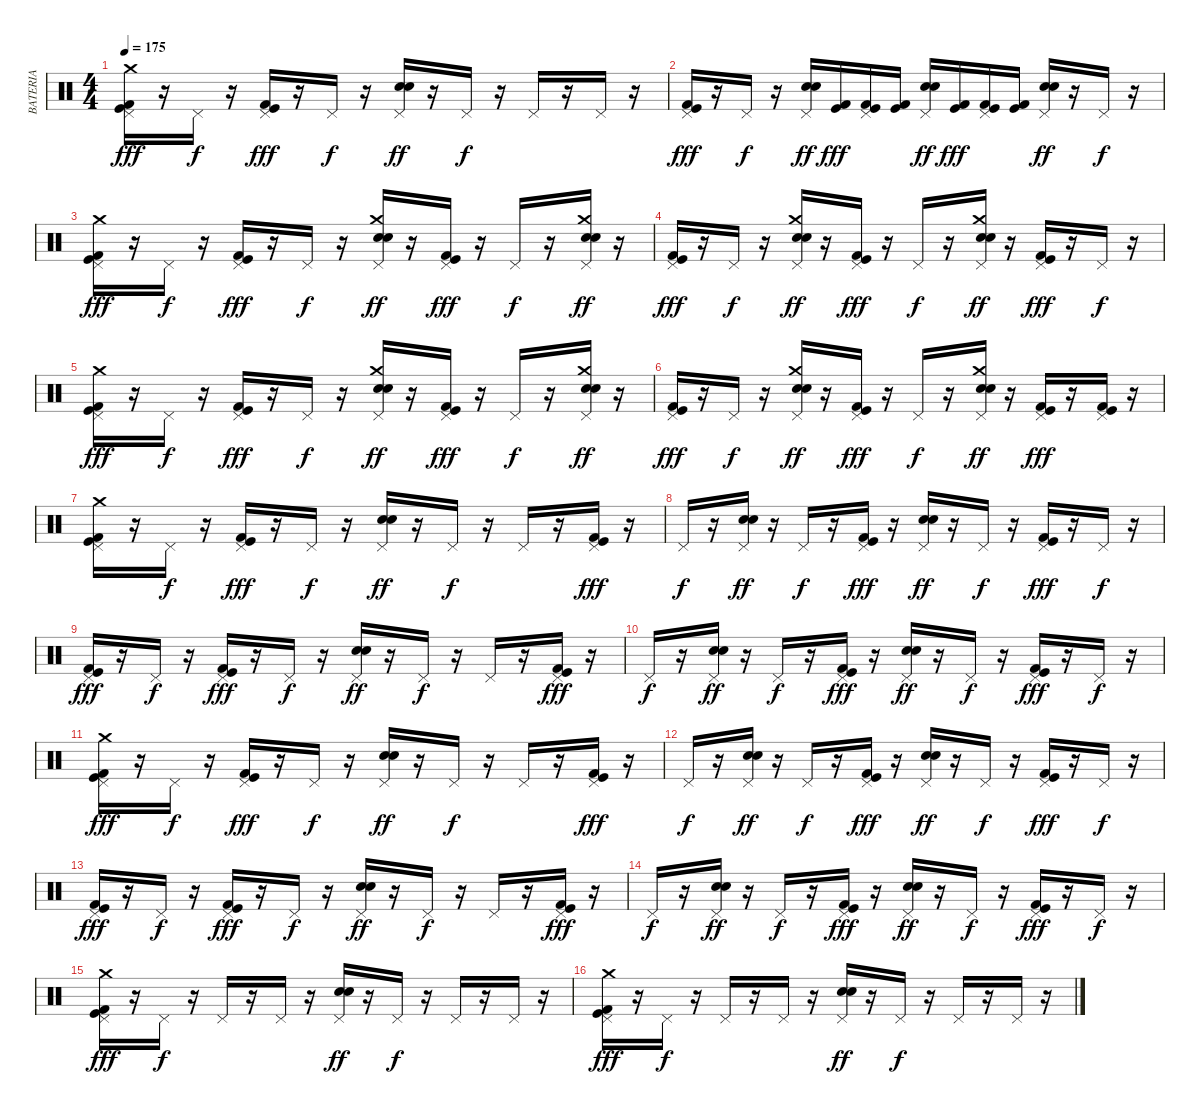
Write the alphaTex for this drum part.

\track ("BATERIA" "BATERIA") {instrument percussion}
\staff {score}
\articulation defaults
\ts (4 4)
\tempo 175
\clef neutral
\ks c
("Pedal Hi-Hat (hit)" "Kick (hit)" "Kick (hit) 2" "Crash medium (hit)").16{dy fff} r.16 "Pedal Hi-Hat (hit)".16{dy f} r.16 ("Kick (hit) 2" "Kick (hit)" "Pedal Hi-Hat (hit)").16{dy fff} r.16 "Pedal Hi-Hat (hit)".16{dy f} r.16 ("Electric Snare (hit)" "Snare (hit) 2" "Pedal Hi-Hat (hit)").16{dy ff} r.16 "Pedal Hi-Hat (hit)".16{dy f} r.16 "Pedal Hi-Hat (hit)".16 r.16 "Pedal Hi-Hat (hit)".16 r.16 |
("Kick (hit) 2" "Kick (hit)" "Pedal Hi-Hat (hit)").16{dy fff} r.16 "Pedal Hi-Hat (hit)".16{dy f} r.16 ("Electric Snare (hit)" "Snare (hit) 2" "Pedal Hi-Hat (hit)").16{dy ff} ("Kick (hit)" "Kick (hit) 2").16{dy fff} ("Kick (hit) 2" "Kick (hit)" "Pedal Hi-Hat (hit)").16 ("Kick (hit)" "Kick (hit) 2").16 ("Electric Snare (hit)" "Snare (hit) 2" "Pedal Hi-Hat (hit)").16{dy ff} ("Kick (hit)" "Kick (hit) 2").16{dy fff} ("Kick (hit) 2" "Kick (hit)" "Pedal Hi-Hat (hit)").16 ("Kick (hit)" "Kick (hit) 2").16 ("Electric Snare (hit)" "Snare (hit) 2" "Pedal Hi-Hat (hit)").16{dy ff} r.16 "Pedal Hi-Hat (hit)".16{dy f} r.16 |
("Pedal Hi-Hat (hit)" "Kick (hit)" "Kick (hit) 2" "Crash medium (hit)").16{dy fff} r.16 "Pedal Hi-Hat (hit)".16{dy f} r.16 ("Kick (hit) 2" "Kick (hit)" "Pedal Hi-Hat (hit)").16{dy fff} r.16 "Pedal Hi-Hat (hit)".16{dy f} r.16 ("Crash medium (hit)" "Electric Snare (hit)" "Snare (hit) 2" "Pedal Hi-Hat (hit)").16{dy ff} r.16 ("Kick (hit) 2" "Kick (hit)" "Pedal Hi-Hat (hit)").16{dy fff} r.16 "Pedal Hi-Hat (hit)".16{dy f} r.16 ("Crash medium (hit)" "Electric Snare (hit)" "Snare (hit) 2" "Pedal Hi-Hat (hit)").16{dy ff} r.16 |
("Kick (hit) 2" "Kick (hit)" "Pedal Hi-Hat (hit)").16{dy fff} r.16 "Pedal Hi-Hat (hit)".16{dy f} r.16 ("Crash medium (hit)" "Electric Snare (hit)" "Snare (hit) 2" "Pedal Hi-Hat (hit)").16{dy ff} r.16 ("Kick (hit) 2" "Kick (hit)" "Pedal Hi-Hat (hit)").16{dy fff} r.16 "Pedal Hi-Hat (hit)".16{dy f} r.16 ("Crash medium (hit)" "Electric Snare (hit)" "Snare (hit) 2" "Pedal Hi-Hat (hit)").16{dy ff} r.16 ("Kick (hit) 2" "Kick (hit)" "Pedal Hi-Hat (hit)").16{dy fff} r.16 "Pedal Hi-Hat (hit)".16{dy f} r.16 |
("Pedal Hi-Hat (hit)" "Kick (hit)" "Kick (hit) 2" "Crash medium (hit)").16{dy fff} r.16 "Pedal Hi-Hat (hit)".16{dy f} r.16 ("Kick (hit) 2" "Kick (hit)" "Pedal Hi-Hat (hit)").16{dy fff} r.16 "Pedal Hi-Hat (hit)".16{dy f} r.16 ("Crash medium (hit)" "Electric Snare (hit)" "Snare (hit) 2" "Pedal Hi-Hat (hit)").16{dy ff} r.16 ("Kick (hit) 2" "Kick (hit)" "Pedal Hi-Hat (hit)").16{dy fff} r.16 "Pedal Hi-Hat (hit)".16{dy f} r.16 ("Crash medium (hit)" "Electric Snare (hit)" "Snare (hit) 2" "Pedal Hi-Hat (hit)").16{dy ff} r.16 |
("Kick (hit) 2" "Kick (hit)" "Pedal Hi-Hat (hit)").16{dy fff} r.16 "Pedal Hi-Hat (hit)".16{dy f} r.16 ("Crash medium (hit)" "Electric Snare (hit)" "Snare (hit) 2" "Pedal Hi-Hat (hit)").16{dy ff} r.16 ("Kick (hit) 2" "Kick (hit)" "Pedal Hi-Hat (hit)").16{dy fff} r.16 "Pedal Hi-Hat (hit)".16{dy f} r.16 ("Crash medium (hit)" "Electric Snare (hit)" "Snare (hit) 2" "Pedal Hi-Hat (hit)").16{dy ff} r.16 ("Pedal Hi-Hat (hit)" "Kick (hit)" "Kick (hit) 2").16{dy fff} r.16 ("Pedal Hi-Hat (hit)" "Kick (hit)" "Kick (hit) 2").16 r.16 |
("Crash medium (hit)" "Kick (hit) 2" "Kick (hit)" "Pedal Hi-Hat (hit)").16 r.16 "Pedal Hi-Hat (hit)".16{dy f} r.16 ("Pedal Hi-Hat (hit)" "Kick (hit)" "Kick (hit) 2").16{dy fff} r.16 "Pedal Hi-Hat (hit)".16{dy f} r.16 ("Pedal Hi-Hat (hit)" "Snare (hit) 2" "Electric Snare (hit)").16{dy ff} r.16 "Pedal Hi-Hat (hit)".16{dy f} r.16 "Pedal Hi-Hat (hit)".16 r.16 ("Kick (hit) 2" "Kick (hit)" "Pedal Hi-Hat (hit)").16{dy fff} r.16 |
"Pedal Hi-Hat (hit)".16{dy f} r.16 ("Pedal Hi-Hat (hit)" "Snare (hit) 2" "Electric Snare (hit)").16{dy ff} r.16 "Pedal Hi-Hat (hit)".16{dy f} r.16 ("Pedal Hi-Hat (hit)" "Kick (hit)" "Kick (hit) 2").16{dy fff} r.16 ("Pedal Hi-Hat (hit)" "Snare (hit) 2" "Electric Snare (hit)").16{dy ff} r.16 "Pedal Hi-Hat (hit)".16{dy f} r.16 ("Kick (hit) 2" "Kick (hit)" "Pedal Hi-Hat (hit)").16{dy fff} r.16 "Pedal Hi-Hat (hit)".16{dy f} r.16 |
("Kick (hit) 2" "Kick (hit)" "Pedal Hi-Hat (hit)").16{dy fff} r.16 "Pedal Hi-Hat (hit)".16{dy f} r.16 ("Pedal Hi-Hat (hit)" "Kick (hit)" "Kick (hit) 2").16{dy fff} r.16 "Pedal Hi-Hat (hit)".16{dy f} r.16 ("Electric Snare (hit)" "Snare (hit) 2" "Pedal Hi-Hat (hit)").16{dy ff} r.16 "Pedal Hi-Hat (hit)".16{dy f} r.16 "Pedal Hi-Hat (hit)".16 r.16 ("Kick (hit) 2" "Kick (hit)" "Pedal Hi-Hat (hit)").16{dy fff} r.16 |
"Pedal Hi-Hat (hit)".16{dy f} r.16 ("Pedal Hi-Hat (hit)" "Snare (hit) 2" "Electric Snare (hit)").16{dy ff} r.16 "Pedal Hi-Hat (hit)".16{dy f} r.16 ("Pedal Hi-Hat (hit)" "Kick (hit)" "Kick (hit) 2").16{dy fff} r.16 ("Electric Snare (hit)" "Snare (hit) 2" "Pedal Hi-Hat (hit)").16{dy ff} r.16 "Pedal Hi-Hat (hit)".16{dy f} r.16 ("Kick (hit) 2" "Kick (hit)" "Pedal Hi-Hat (hit)").16{dy fff} r.16 "Pedal Hi-Hat (hit)".16{dy f} r.16 |
("Crash medium (hit)" "Kick (hit) 2" "Kick (hit)" "Pedal Hi-Hat (hit)").16{dy fff} r.16 "Pedal Hi-Hat (hit)".16{dy f} r.16 ("Pedal Hi-Hat (hit)" "Kick (hit)" "Kick (hit) 2").16{dy fff} r.16 "Pedal Hi-Hat (hit)".16{dy f} r.16 ("Pedal Hi-Hat (hit)" "Snare (hit) 2" "Electric Snare (hit)").16{dy ff} r.16 "Pedal Hi-Hat (hit)".16{dy f} r.16 "Pedal Hi-Hat (hit)".16 r.16 ("Kick (hit) 2" "Kick (hit)" "Pedal Hi-Hat (hit)").16{dy fff} r.16 |
"Pedal Hi-Hat (hit)".16{dy f} r.16 ("Pedal Hi-Hat (hit)" "Snare (hit) 2" "Electric Snare (hit)").16{dy ff} r.16 "Pedal Hi-Hat (hit)".16{dy f} r.16 ("Pedal Hi-Hat (hit)" "Kick (hit)" "Kick (hit) 2").16{dy fff} r.16 ("Pedal Hi-Hat (hit)" "Snare (hit) 2" "Electric Snare (hit)").16{dy ff} r.16 "Pedal Hi-Hat (hit)".16{dy f} r.16 ("Kick (hit) 2" "Kick (hit)" "Pedal Hi-Hat (hit)").16{dy fff} r.16 "Pedal Hi-Hat (hit)".16{dy f} r.16 |
("Kick (hit) 2" "Kick (hit)" "Pedal Hi-Hat (hit)").16{dy fff} r.16 "Pedal Hi-Hat (hit)".16{dy f} r.16 ("Pedal Hi-Hat (hit)" "Kick (hit)" "Kick (hit) 2").16{dy fff} r.16 "Pedal Hi-Hat (hit)".16{dy f} r.16 ("Electric Snare (hit)" "Snare (hit) 2" "Pedal Hi-Hat (hit)").16{dy ff} r.16 "Pedal Hi-Hat (hit)".16{dy f} r.16 "Pedal Hi-Hat (hit)".16 r.16 ("Kick (hit) 2" "Kick (hit)" "Pedal Hi-Hat (hit)").16{dy fff} r.16 |
"Pedal Hi-Hat (hit)".16{dy f} r.16 ("Pedal Hi-Hat (hit)" "Snare (hit) 2" "Electric Snare (hit)").16{dy ff} r.16 "Pedal Hi-Hat (hit)".16{dy f} r.16 ("Pedal Hi-Hat (hit)" "Kick (hit)" "Kick (hit) 2").16{dy fff} r.16 ("Electric Snare (hit)" "Snare (hit) 2" "Pedal Hi-Hat (hit)").16{dy ff} r.16 "Pedal Hi-Hat (hit)".16{dy f} r.16 ("Kick (hit) 2" "Kick (hit)" "Pedal Hi-Hat (hit)").16{dy fff} r.16 "Pedal Hi-Hat (hit)".16{dy f} r.16 |
("Crash medium (hit)" "Kick (hit) 2" "Kick (hit)" "Pedal Hi-Hat (hit)").16{dy fff} r.16 "Pedal Hi-Hat (hit)".16{dy f} r.16 "Pedal Hi-Hat (hit)".16 r.16 "Pedal Hi-Hat (hit)".16 r.16 ("Pedal Hi-Hat (hit)" "Snare (hit) 2" "Electric Snare (hit)").16{dy ff} r.16 "Pedal Hi-Hat (hit)".16{dy f} r.16 "Pedal Hi-Hat (hit)".16 r.16 "Pedal Hi-Hat (hit)".16 r.16 |
("Crash medium (hit)" "Kick (hit) 2" "Kick (hit)" "Pedal Hi-Hat (hit)").16{dy fff} r.16 "Pedal Hi-Hat (hit)".16{dy f} r.16 "Pedal Hi-Hat (hit)".16 r.16 "Pedal Hi-Hat (hit)".16 r.16 ("Pedal Hi-Hat (hit)" "Snare (hit) 2" "Electric Snare (hit)").16{dy ff} r.16 "Pedal Hi-Hat (hit)".16{dy f} r.16 "Pedal Hi-Hat (hit)".16 r.16 "Pedal Hi-Hat (hit)".16 r.16
